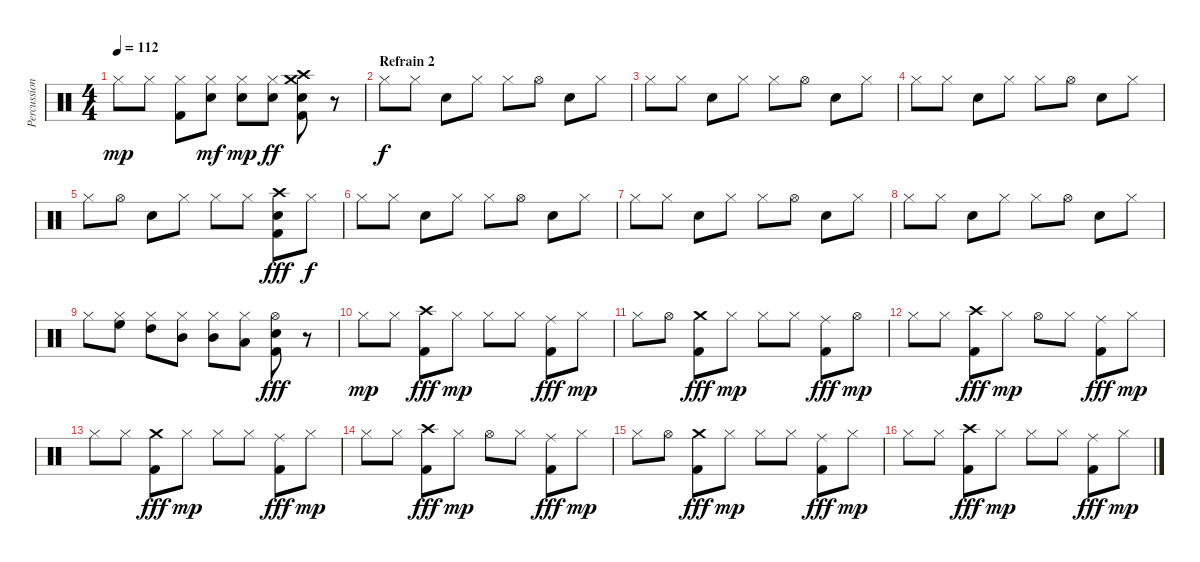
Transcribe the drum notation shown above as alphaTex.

\track ("Percussions" "Percussion") {instrument percussion}
\staff {score}
\articulation defaults
\ts (4 4)
\tempo 112
\clef neutral
\ks c "Hi-Hat (closed)".8{dy mp} "Hi-Hat (closed)".8
("Hi-Hat (closed)" "Kick (hit) 2").8 ("Hi-Hat (closed)" "Electric Snare (hit)").8{dy mf} ("Hi-Hat (closed)" "Electric Snare (hit)").8{dy mp} ("Hi-Hat (closed)" "Electric Snare (hit)").8{dy ff} ("Crash high (hit)" "Crash medium (hit)" "Electric Snare (hit)" "Kick (hit) 2").8 r.8 |
\section ("" "Refrain 2")
"Hi-Hat (closed)".8{dy f} "Hi-Hat (closed)".8 "Electric Snare (hit)".8 "Hi-Hat (closed)".8 "Hi-Hat (closed)".8 "Hi-Hat (open)".8 "Electric Snare (hit)".8 "Hi-Hat (closed)".8 |
"Hi-Hat (closed)".8 "Hi-Hat (closed)".8 "Electric Snare (hit)".8 "Hi-Hat (closed)".8 "Hi-Hat (closed)".8 "Hi-Hat (open)".8 "Electric Snare (hit)".8 "Hi-Hat (closed)".8 |
"Hi-Hat (closed)".8 "Hi-Hat (closed)".8 "Electric Snare (hit)".8 "Hi-Hat (closed)".8 "Hi-Hat (closed)".8 "Hi-Hat (open)".8 "Electric Snare (hit)".8 "Hi-Hat (closed)".8 |
"Hi-Hat (closed)".8 "Hi-Hat (open)".8 "Electric Snare (hit)".8 "Hi-Hat (closed)".8 "Hi-Hat (closed)".8 "Hi-Hat (closed)".8 ("Crash high (hit)" "Electric Snare (hit)" "Kick (hit) 2").8{dy fff} "Hi-Hat (closed)".8{dy f} |
"Hi-Hat (closed)".8 "Hi-Hat (closed)".8 "Electric Snare (hit)".8 "Hi-Hat (closed)".8 "Hi-Hat (closed)".8 "Hi-Hat (open)".8 "Electric Snare (hit)".8 "Hi-Hat (closed)".8 |
"Hi-Hat (closed)".8 "Hi-Hat (closed)".8 "Electric Snare (hit)".8 "Hi-Hat (closed)".8 "Hi-Hat (closed)".8 "Hi-Hat (open)".8 "Electric Snare (hit)".8 "Hi-Hat (closed)".8 |
"Hi-Hat (closed)".8 "Hi-Hat (closed)".8 "Electric Snare (hit)".8 "Hi-Hat (closed)".8 "Hi-Hat (closed)".8 "Hi-Hat (open)".8 "Electric Snare (hit)".8 "Hi-Hat (closed)".8 |
"Hi-Hat (closed)".8 ("Hi-Hat (closed)" "High Floor Tom (hit)").8 ("Hi-Hat (closed)" "High Tom (hit)").8 ("Hi-Hat (closed)" "Mid Tom (hit)").8 ("Hi-Hat (closed)" "Mid Tom (hit)").8 ("Hi-Hat (closed)" "Low Tom (hit)").8 ("Hi-Hat (open)" "Electric Snare (hit)" "Kick (hit) 2").8{dy fff} r.8 |
"Hi-Hat (closed)".8{dy mp} "Hi-Hat (closed)".8 ("Crash high (hit)" "Kick (hit) 2").8{dy fff} "Hi-Hat (closed)".8{dy mp} "Hi-Hat (closed)".8 "Hi-Hat (closed)".8 ("Ride (middle)" "Kick (hit) 2").8{dy fff} "Hi-Hat (closed)".8{dy mp} |
"Hi-Hat (closed)".8 "Hi-Hat (open)".8 ("Crash medium (hit)" "Kick (hit) 2").8{dy fff} "Hi-Hat (closed)".8{dy mp} "Hi-Hat (closed)".8 "Hi-Hat (closed)".8 ("Ride (middle)" "Kick (hit) 2").8{dy fff} "Hi-Hat (open)".8{dy mp} |
"Hi-Hat (closed)".8 "Hi-Hat (closed)".8 ("Crash high (hit)" "Kick (hit) 2").8{dy fff} "Hi-Hat (closed)".8{dy mp} "Hi-Hat (open)".8 "Hi-Hat (closed)".8 ("Ride (middle)" "Kick (hit) 2").8{dy fff} "Hi-Hat (closed)".8{dy mp} |
"Hi-Hat (closed)".8 "Hi-Hat (closed)".8 ("Crash medium (hit)" "Kick (hit) 2").8{dy fff} "Hi-Hat (closed)".8{dy mp} "Hi-Hat (closed)".8 "Hi-Hat (closed)".8 ("Ride (middle)" "Kick (hit) 2").8{dy fff} "Hi-Hat (closed)".8{dy mp} |
"Hi-Hat (closed)".8 "Hi-Hat (closed)".8 ("Crash high (hit)" "Kick (hit) 2").8{dy fff} "Hi-Hat (closed)".8{dy mp} "Hi-Hat (open)".8 "Hi-Hat (closed)".8 ("Ride (middle)" "Kick (hit) 2").8{dy fff} "Hi-Hat (closed)".8{dy mp} |
"Hi-Hat (closed)".8 "Hi-Hat (open)".8 ("Crash medium (hit)" "Kick (hit) 2").8{dy fff} "Hi-Hat (closed)".8{dy mp} "Hi-Hat (closed)".8 "Hi-Hat (closed)".8 ("Ride (middle)" "Kick (hit) 2").8{dy fff} "Hi-Hat (closed)".8{dy mp} |
"Hi-Hat (closed)".8 "Hi-Hat (closed)".8 ("Crash high (hit)" "Kick (hit) 2").8{dy fff} "Hi-Hat (closed)".8{dy mp} "Hi-Hat (closed)".8 "Hi-Hat (closed)".8 ("Ride (middle)" "Kick (hit) 2").8{dy fff} "Hi-Hat (closed)".8{dy mp}
